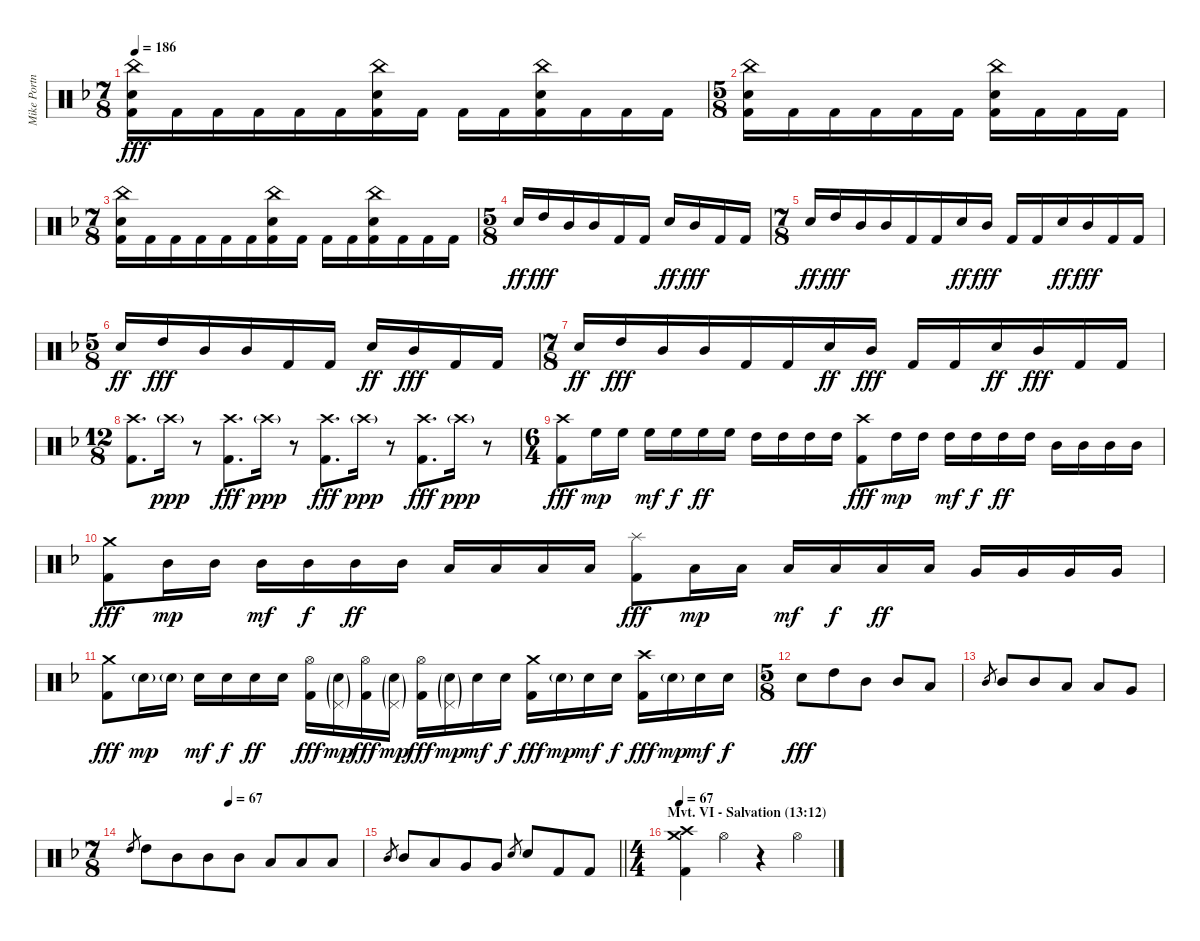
\track ("Mike Portnoy Drums" "Mike Portn") {instrument percussion}
\staff {score}
\articulation defaults
\ts (7 8)
\tempo 186
\clef neutral
\ks dminor
("China (hit)" "Electric Snare (hit)" "Kick (hit) 2").16{dy fff} "Kick (hit) 2".16 "Kick (hit) 2".16 "Kick (hit) 2".16 "Kick (hit) 2".16 "Kick (hit) 2".16 ("China (hit)" "Electric Snare (hit)" "Kick (hit) 2").16 "Kick (hit) 2".16 "Kick (hit) 2".16 "Kick (hit) 2".16 ("China (hit)" "Electric Snare (hit)" "Kick (hit) 2").16 "Kick (hit) 2".16 "Kick (hit) 2".16 "Kick (hit) 2".16 |
\ts (5 8)
("China (hit)" "Electric Snare (hit)" "Kick (hit) 2").16 "Kick (hit) 2".16 "Kick (hit) 2".16 "Kick (hit) 2".16 "Kick (hit) 2".16 "Kick (hit) 2".16 ("China (hit)" "Electric Snare (hit)" "Kick (hit) 2").16 "Kick (hit) 2".16 "Kick (hit) 2".16 "Kick (hit) 2".16 |
\ts (7 8)
("China (hit)" "Electric Snare (hit)" "Kick (hit) 2").16 "Kick (hit) 2".16 "Kick (hit) 2".16 "Kick (hit) 2".16 "Kick (hit) 2".16 "Kick (hit) 2".16 ("China (hit)" "Electric Snare (hit)" "Kick (hit) 2").16 "Kick (hit) 2".16 "Kick (hit) 2".16 "Kick (hit) 2".16 ("China (hit)" "Electric Snare (hit)" "Kick (hit) 2").16 "Kick (hit) 2".16 "Kick (hit) 2".16 "Kick (hit) 2".16 |
\ts (5 8)
"Electric Snare (hit)".16{dy ff} "High Tom (hit)".16{dy fff} "Mid Tom (hit)".16 "Mid Tom (hit)".16 "Kick (hit) 2".16 "Kick (hit) 2".16 "Electric Snare (hit)".16{dy ff} "Mid Tom (hit)".16{dy fff} "Kick (hit) 2".16 "Kick (hit) 2".16 |
\ts (7 8)
"Electric Snare (hit)".16{dy ff} "High Tom (hit)".16{dy fff} "Mid Tom (hit)".16 "Mid Tom (hit)".16 "Kick (hit) 2".16 "Kick (hit) 2".16 "Electric Snare (hit)".16{dy ff} "Mid Tom (hit)".16{dy fff} "Kick (hit) 2".16 "Kick (hit) 2".16 "Electric Snare (hit)".16{dy ff} "Mid Tom (hit)".16{dy fff} "Kick (hit) 2".16 "Kick (hit) 2".16 |
\ts (5 8)
"Electric Snare (hit)".16{dy ff} "High Tom (hit)".16{dy fff} "Mid Tom (hit)".16 "Mid Tom (hit)".16 "Kick (hit) 2".16 "Kick (hit) 2".16 "Electric Snare (hit)".16{dy ff} "Mid Tom (hit)".16{dy fff} "Kick (hit) 2".16 "Kick (hit) 2".16 |
\ts (7 8)
"Electric Snare (hit)".16{dy ff} "High Tom (hit)".16{dy fff} "Mid Tom (hit)".16 "Mid Tom (hit)".16 "Kick (hit) 2".16 "Kick (hit) 2".16 "Electric Snare (hit)".16{dy ff} "Mid Tom (hit)".16{dy fff} "Kick (hit) 2".16 "Kick (hit) 2".16 "Electric Snare (hit)".16{dy ff} "Mid Tom (hit)".16{dy fff} "Kick (hit) 2".16 "Kick (hit) 2".16 |
\ts (12 8)
("Crash high (hit)" "Kick (hit) 2").8{d} "Crash high (hit)"{g}.16{dy ppp} r.8 ("Crash high (hit)" "Kick (hit) 2").8{d dy fff} "Crash high (hit)"{g}.16{dy ppp} r.8 ("Crash high (hit)" "Kick (hit) 2").8{d dy fff} "Crash high (hit)"{g}.16{dy ppp} r.8 ("Crash high (hit)" "Kick (hit) 2").8{d dy fff} "Crash high (hit)"{g}.16{dy ppp} r.8 |
\ts (6 4)
("Crash high (hit)" "Kick (hit) 2").8{dy fff} "High Floor Tom (hit)".16{dy mp} "High Floor Tom (hit)".16 "High Floor Tom (hit)".16{dy mf} "High Floor Tom (hit)".16{dy f} "High Floor Tom (hit)".16{dy ff} "High Floor Tom (hit)".16 "High Tom (hit)".16 "High Tom (hit)".16 "High Tom (hit)".16 "High Tom (hit)".16 ("Crash high (hit)" "Kick (hit) 2").8{dy fff} "High Tom (hit)".16{dy mp} "High Tom (hit)".16 "High Tom (hit)".16{dy mf} "High Tom (hit)".16{dy f} "High Tom (hit)".16{dy ff} "High Tom (hit)".16 "Mid Tom (hit)".16 "Mid Tom (hit)".16 "Mid Tom (hit)".16 "Mid Tom (hit)".16 |
("Crash medium (hit)" "Kick (hit) 2").8{dy fff} "Mid Tom (hit)".16{dy mp} "Mid Tom (hit)".16 "Mid Tom (hit)".16{dy mf} "Mid Tom (hit)".16{dy f} "Mid Tom (hit)".16{dy ff} "Mid Tom (hit)".16 "Low Tom (hit)".16 "Low Tom (hit)".16 "Low Tom (hit)".16 "Low Tom (hit)".16 ("Splash (hit)" "Kick (hit) 2").8{dy fff} "Low Tom (hit)".16{dy mp} "Low Tom (hit)".16 "Low Tom (hit)".16{dy mf} "Low Tom (hit)".16{dy f} "Low Tom (hit)".16{dy ff} "Low Tom (hit)".16 "Very Low Tom (hit)".16 "Very Low Tom (hit)".16 "Very Low Tom (hit)".16 "Very Low Tom (hit)".16 |
("Crash medium (hit)" "Kick (hit) 2").8{dy fff} "Electric Snare (hit)"{g}.16{dy mp} "Electric Snare (hit)"{g}.16 "Electric Snare (hit)".16{dy mf} "Electric Snare (hit)".16{dy f} "Electric Snare (hit)".16{dy ff} "Electric Snare (hit)".16 ("Hi-Hat (open)" "Kick (hit) 2").16{dy fff} ("Electric Snare (hit)"{g} "Pedal Hi-Hat (hit)"{g}).16{dy mp} ("Hi-Hat (open)" "Kick (hit) 2").16{dy fff} ("Electric Snare (hit)"{g} "Pedal Hi-Hat (hit)"{g}).16{dy mp} ("Hi-Hat (open)" "Kick (hit) 2").16{dy fff} ("Electric Snare (hit)"{g} "Pedal Hi-Hat (hit)"{g}).16{dy mp} "Electric Snare (hit)".16{dy mf} "Electric Snare (hit)".16{dy f} ("Crash medium (hit)" "Kick (hit) 2").16{dy fff} "Electric Snare (hit)"{g}.16{dy mp} "Electric Snare (hit)".16{dy mf} "Electric Snare (hit)".16{dy f} ("Crash high (hit)" "Kick (hit) 2").16{dy fff} "Electric Snare (hit)"{g}.16{dy mp} "Electric Snare (hit)".16{dy mf} "Electric Snare (hit)".16{dy f} |
\ts (5 8)
"Electric Snare (hit)".8{dy fff} "High Tom (hit)".8 "Mid Tom (hit)".8 "Mid Tom (hit)".8 "Low Tom (hit)".8 |
"Mid Tom (hit)".8{gr} "Mid Tom (hit)".8 "Mid Tom (hit)".8 "Low Tom (hit)".8 "Low Tom (hit)".8 "Very Low Tom (hit)".8 |
\ts (7 8)
\tempo (67 0.42857142857142855)
"High Tom (hit)".8{gr} "High Tom (hit)".8 "Mid Tom (hit)".8 "Mid Tom (hit)".8 "Mid Tom (hit)".8 "Low Tom (hit)".8 "Low Tom (hit)".8 "Low Tom (hit)".8 |
\barLineRight lightlight "Mid Tom (hit)".8{gr} "Mid Tom (hit)".8 "Low Tom (hit)".8 "Very Low Tom (hit)".8 "Very Low Tom (hit)".8 "Electric Snare (hit)".8{gr} "Electric Snare (hit)".8 "Kick (hit) 2".8 "Kick (hit) 2".8
|
\ts (4 4)
\section ("" "Mvt. VI - Salvation (13:12)")
\tempo 67
("Crash high (hit)" "Crash medium (hit)" "Kick (hit) 2").4 "Hi-Hat (open)".4 r.4 "Hi-Hat (open)".4
